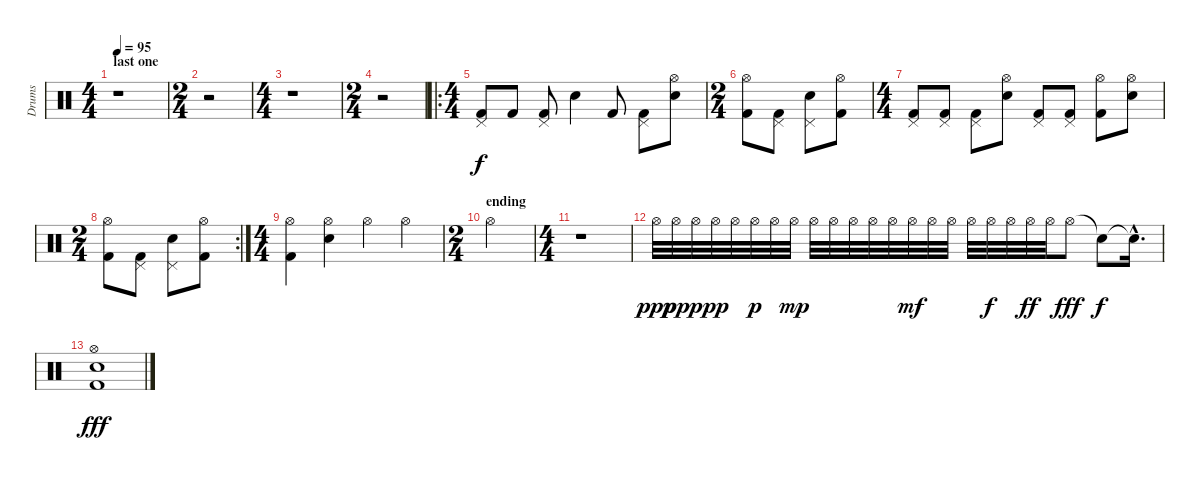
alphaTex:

\track ("Drums" "Drums") {instrument percussion}
\staff {score}
\articulation defaults
\ts (4 4)
\section ("" "last one")
\tempo 95
\clef neutral
\ks c
r.1{dy f} |
\ts (2 4)
r.2 |
\ts (4 4)
r.1 |
\ts (2 4)
r.2 |
\ro
\ts (4 4)
("Pedal Hi-Hat (hit)" "Kick (hit) 2").8 "Kick (hit) 2".8 ("Pedal Hi-Hat (hit)" "Kick (hit) 2").8 "Snare (hit) 2".4 "Kick (hit) 2".8 ("Pedal Hi-Hat (hit)" "Kick (hit) 2").8 ("Hi-Hat (open)" "Snare (hit) 2").8 |
\ts (2 4)
("Hi-Hat (open)" "Kick (hit) 2").8 ("Pedal Hi-Hat (hit)" "Kick (hit) 2").8 ("Pedal Hi-Hat (hit)" "Snare (hit) 2").8 ("Hi-Hat (open)" "Kick (hit) 2").8 |
\ts (4 4)
("Pedal Hi-Hat (hit)" "Kick (hit) 2").8 ("Pedal Hi-Hat (hit)" "Kick (hit) 2").8 ("Pedal Hi-Hat (hit)" "Kick (hit) 2").8 ("Hi-Hat (open)" "Snare (hit) 2").8 ("Pedal Hi-Hat (hit)" "Kick (hit) 2").8 ("Pedal Hi-Hat (hit)" "Kick (hit) 2").8 ("Hi-Hat (open)" "Kick (hit) 2").8 ("Hi-Hat (open)" "Snare (hit) 2").8 |
\rc 2
\ts (2 4)
("Hi-Hat (open)" "Kick (hit) 2").8 ("Pedal Hi-Hat (hit)" "Kick (hit) 2").8 ("Pedal Hi-Hat (hit)" "Snare (hit) 2").8 ("Hi-Hat (open)" "Kick (hit) 2").8 |
\ts (4 4)
("Hi-Hat (open)" "Kick (hit) 2").4 ("Hi-Hat (open)" "Snare (hit) 2").4 "Hi-Hat (open)".4 "Hi-Hat (open)".4 |
\ts (2 4)
\section ("" "ending")
"Hi-Hat (open)".2 |
\ts (4 4)
r.1 |
"Hi-Hat (open)".32{dy ppp} "Hi-Hat (open)".32{dy pp} "Hi-Hat (open)".32{dy p} "Hi-Hat (open)".32{dy pp} "Hi-Hat (open)".32 "Hi-Hat (open)".32{dy p} "Hi-Hat (open)".32 "Hi-Hat (open)".32{dy mp} "Hi-Hat (open)".32 "Hi-Hat (open)".32 "Hi-Hat (open)".32 "Hi-Hat (open)".32 "Hi-Hat (open)".32 "Hi-Hat (open)".32{dy mf} "Hi-Hat (open)".32 "Hi-Hat (open)".32 "Hi-Hat (open)".32 "Hi-Hat (open)".32{dy f} "Hi-Hat (open)".32 "Hi-Hat (open)".32{dy ff} "Hi-Hat (open)".32 "Hi-Hat (open)".8{dy fff} "Snare (hit)"{t}.8{dy f} "Snare (hit)"{hac t}.16{d} |
("Snare (hit) 2" "Hi-Hat (open)" "Kick (hit) 2").1{dy fff}
